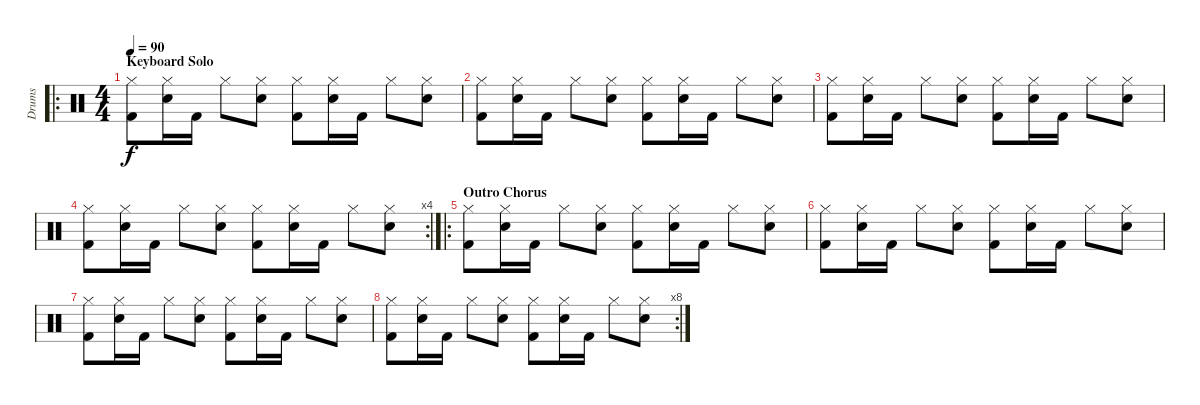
\track ("Drums" "Drums") {instrument percussion}
\staff {score}
\articulation defaults
\ro
\ts (4 4)
\section ("" "Keyboard Solo")
\tempo 90
\clef neutral
\ks c
("Hi-Hat (closed)" "Kick (hit) 2").8{dy f} ("Hi-Hat (closed)" "Electric Snare (hit)").16 "Kick (hit) 2".16 "Hi-Hat (closed)".8 ("Hi-Hat (closed)" "Electric Snare (hit)").8 ("Hi-Hat (closed)" "Kick (hit) 2").8 ("Hi-Hat (closed)" "Electric Snare (hit)").16 "Kick (hit) 2".16 "Hi-Hat (closed)".8 ("Hi-Hat (closed)" "Electric Snare (hit)").8 |
("Hi-Hat (closed)" "Kick (hit) 2").8 ("Hi-Hat (closed)" "Electric Snare (hit)").16 "Kick (hit) 2".16 "Hi-Hat (closed)".8 ("Hi-Hat (closed)" "Electric Snare (hit)").8 ("Hi-Hat (closed)" "Kick (hit) 2").8 ("Hi-Hat (closed)" "Electric Snare (hit)").16 "Kick (hit) 2".16 "Hi-Hat (closed)".8 ("Hi-Hat (closed)" "Electric Snare (hit)").8 |
("Hi-Hat (closed)" "Kick (hit) 2").8 ("Hi-Hat (closed)" "Electric Snare (hit)").16 "Kick (hit) 2".16 "Hi-Hat (closed)".8 ("Hi-Hat (closed)" "Electric Snare (hit)").8 ("Hi-Hat (closed)" "Kick (hit) 2").8 ("Hi-Hat (closed)" "Electric Snare (hit)").16 "Kick (hit) 2".16 "Hi-Hat (closed)".8 ("Hi-Hat (closed)" "Electric Snare (hit)").8 |
\rc 4
("Hi-Hat (closed)" "Kick (hit) 2").8 ("Hi-Hat (closed)" "Electric Snare (hit)").16 "Kick (hit) 2".16 "Hi-Hat (closed)".8 ("Hi-Hat (closed)" "Electric Snare (hit)").8 ("Hi-Hat (closed)" "Kick (hit) 2").8 ("Hi-Hat (closed)" "Electric Snare (hit)").16 "Kick (hit) 2".16 "Hi-Hat (closed)".8 ("Hi-Hat (closed)" "Electric Snare (hit)").8 |
\ro
\section ("" "Outro Chorus")
("Hi-Hat (closed)" "Kick (hit) 2").8 ("Hi-Hat (closed)" "Electric Snare (hit)").16 "Kick (hit) 2".16 "Hi-Hat (closed)".8 ("Hi-Hat (closed)" "Electric Snare (hit)").8 ("Hi-Hat (closed)" "Kick (hit) 2").8 ("Hi-Hat (closed)" "Electric Snare (hit)").16 "Kick (hit) 2".16 "Hi-Hat (closed)".8 ("Hi-Hat (closed)" "Electric Snare (hit)").8 |
("Hi-Hat (closed)" "Kick (hit) 2").8 ("Hi-Hat (closed)" "Electric Snare (hit)").16 "Kick (hit) 2".16 "Hi-Hat (closed)".8 ("Hi-Hat (closed)" "Electric Snare (hit)").8 ("Hi-Hat (closed)" "Kick (hit) 2").8 ("Hi-Hat (closed)" "Electric Snare (hit)").16 "Kick (hit) 2".16 "Hi-Hat (closed)".8 ("Hi-Hat (closed)" "Electric Snare (hit)").8 |
("Hi-Hat (closed)" "Kick (hit) 2").8 ("Hi-Hat (closed)" "Electric Snare (hit)").16 "Kick (hit) 2".16 "Hi-Hat (closed)".8 ("Hi-Hat (closed)" "Electric Snare (hit)").8 ("Hi-Hat (closed)" "Kick (hit) 2").8 ("Hi-Hat (closed)" "Electric Snare (hit)").16 "Kick (hit) 2".16 "Hi-Hat (closed)".8 ("Hi-Hat (closed)" "Electric Snare (hit)").8 |
\rc 8
("Hi-Hat (closed)" "Kick (hit) 2").8 ("Hi-Hat (closed)" "Electric Snare (hit)").16 "Kick (hit) 2".16 "Hi-Hat (closed)".8 ("Hi-Hat (closed)" "Electric Snare (hit)").8 ("Hi-Hat (closed)" "Kick (hit) 2").8 ("Hi-Hat (closed)" "Electric Snare (hit)").16 "Kick (hit) 2".16 "Hi-Hat (closed)".8 ("Hi-Hat (closed)" "Electric Snare (hit)").8
